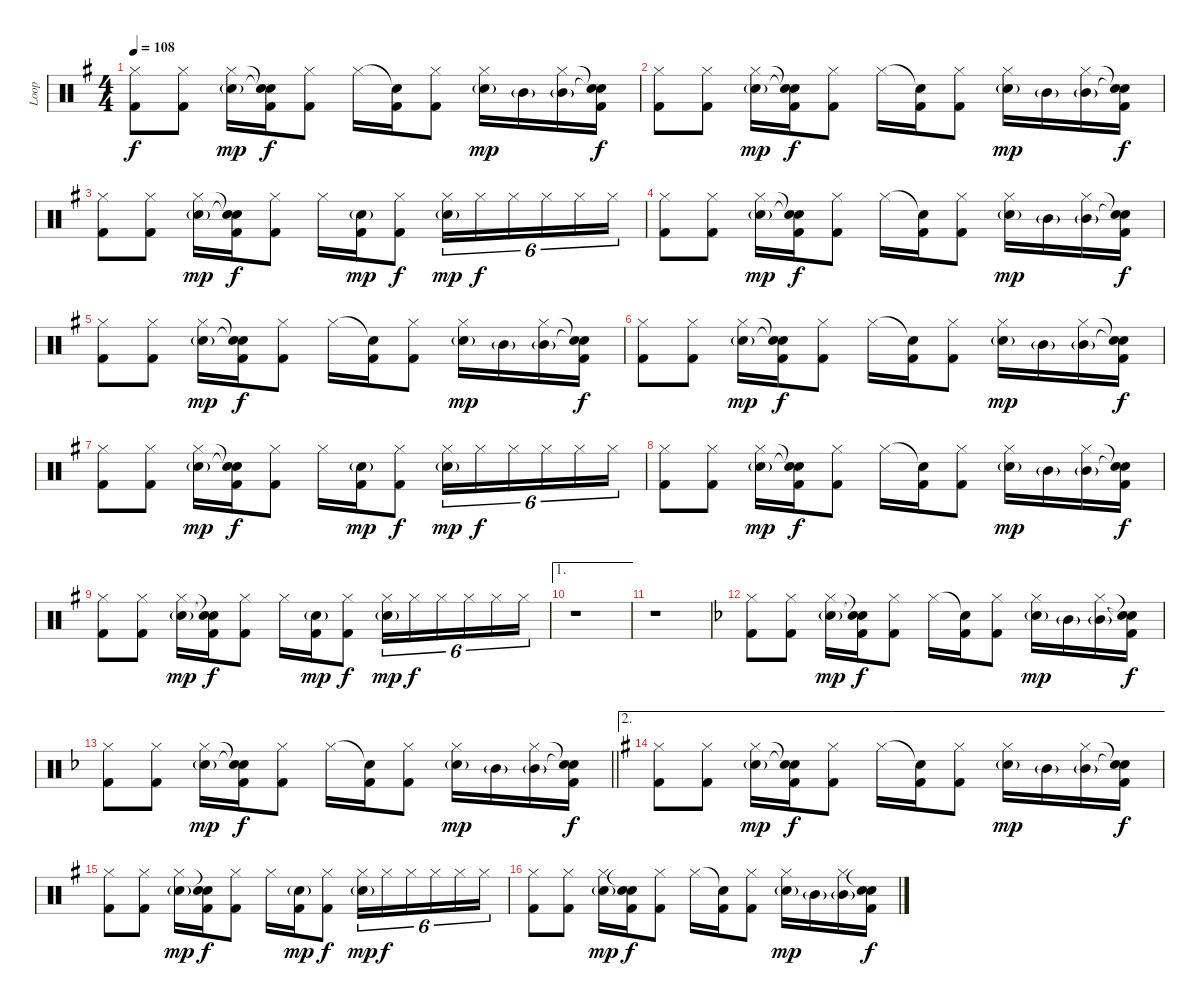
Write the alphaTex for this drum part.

\track ("Loop" "Loop") {instrument percussion}
\staff {score}
\articulation defaults
\ts (4 4)
\tempo 108
\clef neutral
\ks eminor
("Hi-Hat (closed)" "Kick (hit) 2").8{dy f} ("Hi-Hat (closed)" "Kick (hit) 2").8 ("Hi-Hat (closed)" "Electric Snare (hit)"{g}).16{dy mp} ("Snare (hit)"{t} "Snare (hit)"{t} "Kick (hit) 2").16{dy f} ("Hi-Hat (closed)" "Kick (hit) 2").8 "Hi-Hat (closed)".16 ("Snare (hit)"{t} "Kick (hit) 2").16 ("Hi-Hat (closed)" "Kick (hit) 2").8 ("Hi-Hat (closed)" "Electric Snare (hit)"{g}).16{dy mp} "Mid Tom (hit)"{g}.16 ("Hi-Hat (closed)" "Mid Tom (hit)"{g}).16 ("Snare (hit)"{t} "Snare (hit)"{t} "Kick (hit) 2").16{dy f} |
("Hi-Hat (closed)" "Kick (hit) 2").8 ("Hi-Hat (closed)" "Kick (hit) 2").8 ("Hi-Hat (closed)" "Electric Snare (hit)"{g}).16{dy mp} ("Snare (hit)"{t} "Snare (hit)"{t} "Kick (hit) 2").16{dy f} ("Hi-Hat (closed)" "Kick (hit) 2").8 "Hi-Hat (closed)".16 ("Snare (hit)"{t} "Kick (hit) 2").16 ("Hi-Hat (closed)" "Kick (hit) 2").8 ("Hi-Hat (closed)" "Electric Snare (hit)"{g}).16{dy mp} "Mid Tom (hit)"{g}.16 ("Hi-Hat (closed)" "Mid Tom (hit)"{g}).16 ("Snare (hit)"{t} "Snare (hit)"{t} "Kick (hit) 2").16{dy f} |
("Hi-Hat (closed)" "Kick (hit) 2").8 ("Hi-Hat (closed)" "Kick (hit) 2").8 ("Hi-Hat (closed)" "Electric Snare (hit)"{g}).16{dy mp} ("Snare (hit)"{t} "Snare (hit)"{t} "Kick (hit) 2").16{dy f} ("Hi-Hat (closed)" "Kick (hit) 2").8 "Hi-Hat (closed)".16 ("Electric Snare (hit)"{g} "Kick (hit) 2").16{dy mp} ("Hi-Hat (closed)" "Kick (hit) 2").8{dy f} ("Hi-Hat (closed)" "Electric Snare (hit)"{g}).16{tu (6 4) dy mp} "Hi-Hat (closed)".16{tu (6 4) dy f} "Hi-Hat (closed)".16{tu (6 4)} "Hi-Hat (closed)".16{tu (6 4)} "Hi-Hat (closed)".16{tu (6 4)} "Hi-Hat (closed)".16{tu (6 4)} |
("Hi-Hat (closed)" "Kick (hit) 2").8 ("Hi-Hat (closed)" "Kick (hit) 2").8 ("Hi-Hat (closed)" "Electric Snare (hit)"{g}).16{dy mp} ("Snare (hit)"{t} "Snare (hit)"{t} "Kick (hit) 2").16{dy f} ("Hi-Hat (closed)" "Kick (hit) 2").8 "Hi-Hat (closed)".16 ("Snare (hit)"{t} "Kick (hit) 2").16 ("Hi-Hat (closed)" "Kick (hit) 2").8 ("Hi-Hat (closed)" "Electric Snare (hit)"{g}).16{dy mp} "Mid Tom (hit)"{g}.16 ("Hi-Hat (closed)" "Mid Tom (hit)"{g}).16 ("Snare (hit)"{t} "Snare (hit)"{t} "Kick (hit) 2").16{dy f} |
("Hi-Hat (closed)" "Kick (hit) 2").8 ("Hi-Hat (closed)" "Kick (hit) 2").8 ("Hi-Hat (closed)" "Electric Snare (hit)"{g}).16{dy mp} ("Snare (hit)"{t} "Snare (hit)"{t} "Kick (hit) 2").16{dy f} ("Hi-Hat (closed)" "Kick (hit) 2").8 "Hi-Hat (closed)".16 ("Snare (hit)"{t} "Kick (hit) 2").16 ("Hi-Hat (closed)" "Kick (hit) 2").8 ("Hi-Hat (closed)" "Electric Snare (hit)"{g}).16{dy mp} "Mid Tom (hit)"{g}.16 ("Hi-Hat (closed)" "Mid Tom (hit)"{g}).16 ("Snare (hit)"{t} "Snare (hit)"{t} "Kick (hit) 2").16{dy f} |
("Hi-Hat (closed)" "Kick (hit) 2").8 ("Hi-Hat (closed)" "Kick (hit) 2").8 ("Hi-Hat (closed)" "Electric Snare (hit)"{g}).16{dy mp} ("Snare (hit)"{t} "Snare (hit)"{t} "Kick (hit) 2").16{dy f} ("Hi-Hat (closed)" "Kick (hit) 2").8 "Hi-Hat (closed)".16 ("Snare (hit)"{t} "Kick (hit) 2").16 ("Hi-Hat (closed)" "Kick (hit) 2").8 ("Hi-Hat (closed)" "Electric Snare (hit)"{g}).16{dy mp} "Mid Tom (hit)"{g}.16 ("Hi-Hat (closed)" "Mid Tom (hit)"{g}).16 ("Snare (hit)"{t} "Snare (hit)"{t} "Kick (hit) 2").16{dy f} |
("Hi-Hat (closed)" "Kick (hit) 2").8 ("Hi-Hat (closed)" "Kick (hit) 2").8 ("Hi-Hat (closed)" "Electric Snare (hit)"{g}).16{dy mp} ("Snare (hit)"{t} "Snare (hit)"{t} "Kick (hit) 2").16{dy f} ("Hi-Hat (closed)" "Kick (hit) 2").8 "Hi-Hat (closed)".16 ("Electric Snare (hit)"{g} "Kick (hit) 2").16{dy mp} ("Hi-Hat (closed)" "Kick (hit) 2").8{dy f} ("Hi-Hat (closed)" "Electric Snare (hit)"{g}).16{tu (6 4) dy mp} "Hi-Hat (closed)".16{tu (6 4) dy f} "Hi-Hat (closed)".16{tu (6 4)} "Hi-Hat (closed)".16{tu (6 4)} "Hi-Hat (closed)".16{tu (6 4)} "Hi-Hat (closed)".16{tu (6 4)} |
("Hi-Hat (closed)" "Kick (hit) 2").8 ("Hi-Hat (closed)" "Kick (hit) 2").8 ("Hi-Hat (closed)" "Electric Snare (hit)"{g}).16{dy mp} ("Snare (hit)"{t} "Snare (hit)"{t} "Kick (hit) 2").16{dy f} ("Hi-Hat (closed)" "Kick (hit) 2").8 "Hi-Hat (closed)".16 ("Snare (hit)"{t} "Kick (hit) 2").16 ("Hi-Hat (closed)" "Kick (hit) 2").8 ("Hi-Hat (closed)" "Electric Snare (hit)"{g}).16{dy mp} "Mid Tom (hit)"{g}.16 ("Hi-Hat (closed)" "Mid Tom (hit)"{g}).16 ("Snare (hit)"{t} "Snare (hit)"{t} "Kick (hit) 2").16{dy f} |
("Hi-Hat (closed)" "Kick (hit) 2").8 ("Hi-Hat (closed)" "Kick (hit) 2").8 ("Hi-Hat (closed)" "Electric Snare (hit)"{g}).16{dy mp} ("Snare (hit)"{t} "Snare (hit)"{t} "Kick (hit) 2").16{dy f} ("Hi-Hat (closed)" "Kick (hit) 2").8 "Hi-Hat (closed)".16 ("Electric Snare (hit)"{g} "Kick (hit) 2").16{dy mp} ("Hi-Hat (closed)" "Kick (hit) 2").8{dy f} ("Hi-Hat (closed)" "Electric Snare (hit)"{g}).16{tu (6 4) dy mp} "Hi-Hat (closed)".16{tu (6 4) dy f} "Hi-Hat (closed)".16{tu (6 4)} "Hi-Hat (closed)".16{tu (6 4)} "Hi-Hat (closed)".16{tu (6 4)} "Hi-Hat (closed)".16{tu (6 4)} |
\ae 1
r.1 |
r.1 |
\ks dminor
("Hi-Hat (closed)" "Kick (hit) 2").8 ("Hi-Hat (closed)" "Kick (hit) 2").8 ("Hi-Hat (closed)" "Electric Snare (hit)"{g}).16{dy mp} ("Snare (hit)"{t} "Snare (hit)"{t} "Kick (hit) 2").16{dy f} ("Hi-Hat (closed)" "Kick (hit) 2").8 "Hi-Hat (closed)".16 ("Snare (hit)"{t} "Kick (hit) 2").16 ("Hi-Hat (closed)" "Kick (hit) 2").8 ("Hi-Hat (closed)" "Electric Snare (hit)"{g}).16{dy mp} "Mid Tom (hit)"{g}.16 ("Hi-Hat (closed)" "Mid Tom (hit)"{g}).16 ("Snare (hit)"{t} "Snare (hit)"{t} "Kick (hit) 2").16{dy f} |
\barLineRight lightlight
("Hi-Hat (closed)" "Kick (hit) 2").8 ("Hi-Hat (closed)" "Kick (hit) 2").8 ("Hi-Hat (closed)" "Electric Snare (hit)"{g}).16{dy mp} ("Snare (hit)"{t} "Snare (hit)"{t} "Kick (hit) 2").16{dy f} ("Hi-Hat (closed)" "Kick (hit) 2").8 "Hi-Hat (closed)".16 ("Snare (hit)"{t} "Kick (hit) 2").16 ("Hi-Hat (closed)" "Kick (hit) 2").8 ("Hi-Hat (closed)" "Electric Snare (hit)"{g}).16{dy mp} "Mid Tom (hit)"{g}.16 ("Hi-Hat (closed)" "Mid Tom (hit)"{g}).16 ("Snare (hit)"{t} "Snare (hit)"{t} "Kick (hit) 2").16{dy f} |
\ae 2
\ks eminor
("Hi-Hat (closed)" "Kick (hit) 2").8 ("Hi-Hat (closed)" "Kick (hit) 2").8 ("Hi-Hat (closed)" "Electric Snare (hit)"{g}).16{dy mp} ("Snare (hit)"{t} "Snare (hit)"{t} "Kick (hit) 2").16{dy f} ("Hi-Hat (closed)" "Kick (hit) 2").8 "Hi-Hat (closed)".16 ("Snare (hit)"{t} "Kick (hit) 2").16 ("Hi-Hat (closed)" "Kick (hit) 2").8 ("Hi-Hat (closed)" "Electric Snare (hit)"{g}).16{dy mp} "Mid Tom (hit)"{g}.16 ("Hi-Hat (closed)" "Mid Tom (hit)"{g}).16 ("Snare (hit)"{t} "Snare (hit)"{t} "Kick (hit) 2").16{dy f} |
("Hi-Hat (closed)" "Kick (hit) 2").8 ("Hi-Hat (closed)" "Kick (hit) 2").8 ("Hi-Hat (closed)" "Electric Snare (hit)"{g}).16{dy mp} ("Snare (hit)"{t} "Snare (hit)"{t} "Kick (hit) 2").16{dy f} ("Hi-Hat (closed)" "Kick (hit) 2").8 "Hi-Hat (closed)".16 ("Electric Snare (hit)"{g} "Kick (hit) 2").16{dy mp} ("Hi-Hat (closed)" "Kick (hit) 2").8{dy f} ("Hi-Hat (closed)" "Electric Snare (hit)"{g}).16{tu (6 4) dy mp} "Hi-Hat (closed)".16{tu (6 4) dy f} "Hi-Hat (closed)".16{tu (6 4)} "Hi-Hat (closed)".16{tu (6 4)} "Hi-Hat (closed)".16{tu (6 4)} "Hi-Hat (closed)".16{tu (6 4)} |
("Hi-Hat (closed)" "Kick (hit) 2").8 ("Hi-Hat (closed)" "Kick (hit) 2").8 ("Hi-Hat (closed)" "Electric Snare (hit)"{g}).16{dy mp} ("Snare (hit)"{t} "Snare (hit)"{t} "Kick (hit) 2").16{dy f} ("Hi-Hat (closed)" "Kick (hit) 2").8 "Hi-Hat (closed)".16 ("Snare (hit)"{t} "Kick (hit) 2").16 ("Hi-Hat (closed)" "Kick (hit) 2").8 ("Hi-Hat (closed)" "Electric Snare (hit)"{g}).16{dy mp} "Mid Tom (hit)"{g}.16 ("Hi-Hat (closed)" "Mid Tom (hit)"{g}).16 ("Snare (hit)"{t} "Snare (hit)"{t} "Kick (hit) 2").16{dy f}
